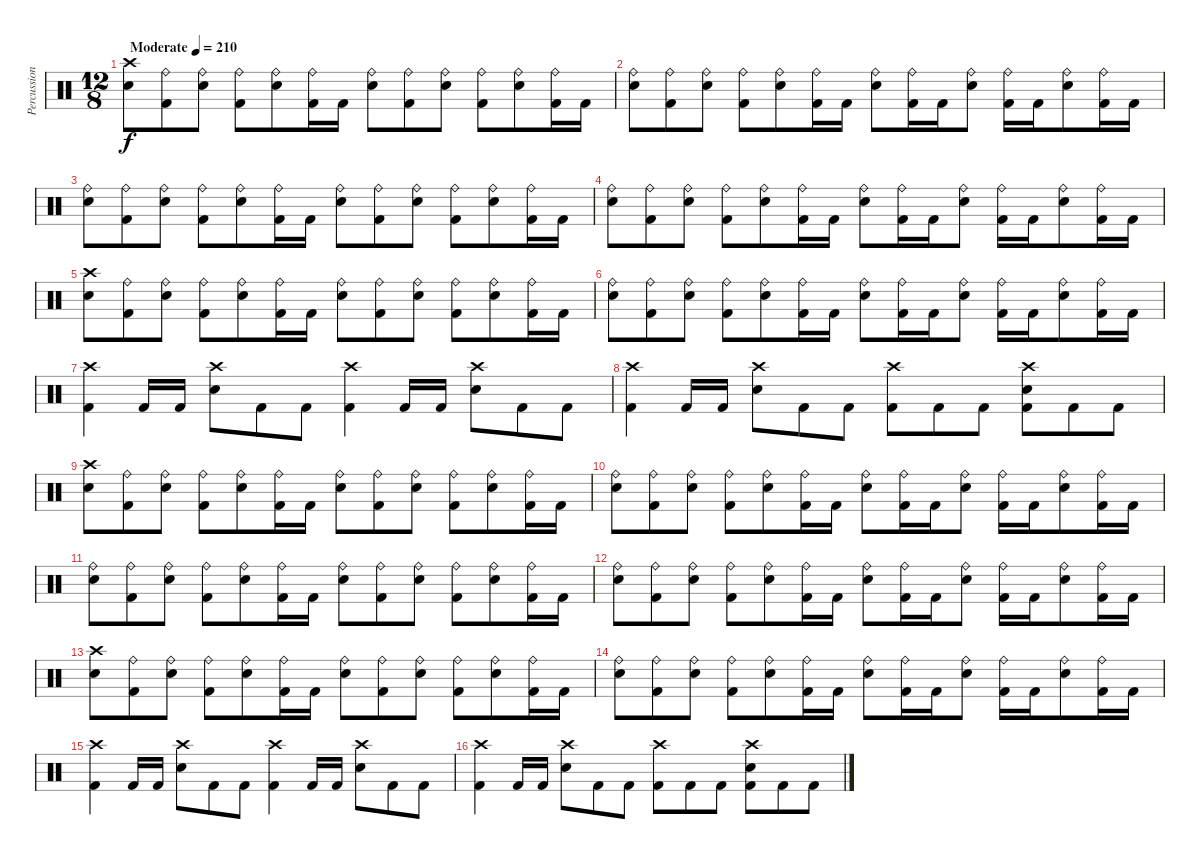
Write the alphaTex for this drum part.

\track ("Percussions" "Percussion") {instrument percussion}
\staff {score}
\articulation defaults
\ts (12 8)
\tempo (210 "Moderate")
\clef neutral
\ks c
("Crash high (hit)" "Snare (hit) 2").8{dy f} ("Ride (bell)" "Kick (hit) 2").8 ("Ride (bell)" "Snare (hit) 2").8 ("Ride (bell)" "Kick (hit) 2").8 ("Ride (bell)" "Snare (hit) 2").8 ("Ride (bell)" "Kick (hit) 2").16 "Kick (hit) 2".16 ("Ride (bell)" "Snare (hit) 2").8 ("Ride (bell)" "Kick (hit) 2").8 ("Ride (bell)" "Snare (hit) 2").8 ("Ride (bell)" "Kick (hit) 2").8 ("Ride (bell)" "Snare (hit) 2").8 ("Ride (bell)" "Kick (hit) 2").16 "Kick (hit) 2".16 |
("Ride (bell)" "Snare (hit) 2").8 ("Ride (bell)" "Kick (hit) 2").8 ("Ride (bell)" "Snare (hit) 2").8 ("Ride (bell)" "Kick (hit) 2").8 ("Ride (bell)" "Snare (hit) 2").8 ("Ride (bell)" "Kick (hit) 2").16 "Kick (hit) 2".16 ("Ride (bell)" "Snare (hit) 2").8 ("Ride (bell)" "Kick (hit) 2").16 "Kick (hit) 2".16 ("Ride (bell)" "Snare (hit) 2").8 ("Ride (bell)" "Kick (hit) 2").16 "Kick (hit) 2".16 ("Ride (bell)" "Snare (hit) 2").8 ("Ride (bell)" "Kick (hit) 2").16 "Kick (hit) 2".16 |
("Ride (bell)" "Snare (hit) 2").8 ("Ride (bell)" "Kick (hit) 2").8 ("Ride (bell)" "Snare (hit) 2").8 ("Ride (bell)" "Kick (hit) 2").8 ("Ride (bell)" "Snare (hit) 2").8 ("Ride (bell)" "Kick (hit) 2").16 "Kick (hit) 2".16 ("Ride (bell)" "Snare (hit) 2").8 ("Ride (bell)" "Kick (hit) 2").8 ("Ride (bell)" "Snare (hit) 2").8 ("Ride (bell)" "Kick (hit) 2").8 ("Ride (bell)" "Snare (hit) 2").8 ("Ride (bell)" "Kick (hit) 2").16 "Kick (hit) 2".16 |
("Ride (bell)" "Snare (hit) 2").8 ("Ride (bell)" "Kick (hit) 2").8 ("Ride (bell)" "Snare (hit) 2").8 ("Ride (bell)" "Kick (hit) 2").8 ("Ride (bell)" "Snare (hit) 2").8 ("Ride (bell)" "Kick (hit) 2").16 "Kick (hit) 2".16 ("Ride (bell)" "Snare (hit) 2").8 ("Ride (bell)" "Kick (hit) 2").16 "Kick (hit) 2".16 ("Ride (bell)" "Snare (hit) 2").8 ("Ride (bell)" "Kick (hit) 2").16 "Kick (hit) 2".16 ("Ride (bell)" "Snare (hit) 2").8 ("Ride (bell)" "Kick (hit) 2").16 "Kick (hit) 2".16 |
("Crash high (hit)" "Snare (hit) 2").8 ("Ride (bell)" "Kick (hit) 2").8 ("Ride (bell)" "Snare (hit) 2").8 ("Ride (bell)" "Kick (hit) 2").8 ("Ride (bell)" "Snare (hit) 2").8 ("Ride (bell)" "Kick (hit) 2").16 "Kick (hit) 2".16 ("Ride (bell)" "Snare (hit) 2").8 ("Ride (bell)" "Kick (hit) 2").8 ("Ride (bell)" "Snare (hit) 2").8 ("Ride (bell)" "Kick (hit) 2").8 ("Ride (bell)" "Snare (hit) 2").8 ("Ride (bell)" "Kick (hit) 2").16 "Kick (hit) 2".16 |
("Ride (bell)" "Snare (hit) 2").8 ("Ride (bell)" "Kick (hit) 2").8 ("Ride (bell)" "Snare (hit) 2").8 ("Ride (bell)" "Kick (hit) 2").8 ("Ride (bell)" "Snare (hit) 2").8 ("Ride (bell)" "Kick (hit) 2").16 "Kick (hit) 2".16 ("Ride (bell)" "Snare (hit) 2").8 ("Ride (bell)" "Kick (hit) 2").16 "Kick (hit) 2".16 ("Ride (bell)" "Snare (hit) 2").8 ("Ride (bell)" "Kick (hit) 2").16 "Kick (hit) 2".16 ("Ride (bell)" "Snare (hit) 2").8 ("Ride (bell)" "Kick (hit) 2").16 "Kick (hit) 2".16 |
("Crash high (hit)" "Kick (hit) 2").4 "Kick (hit) 2".16 "Kick (hit) 2".16 ("Crash high (hit)" "Snare (hit) 2").8 "Kick (hit) 2".8 "Kick (hit) 2".8 ("Crash high (hit)" "Kick (hit) 2").4 "Kick (hit) 2".16 "Kick (hit) 2".16 ("Crash high (hit)" "Snare (hit) 2").8 "Kick (hit) 2".8 "Kick (hit) 2".8 |
("Crash high (hit)" "Kick (hit) 2").4 "Kick (hit) 2".16 "Kick (hit) 2".16 ("Crash high (hit)" "Snare (hit) 2").8 "Kick (hit) 2".8 "Kick (hit) 2".8 ("Crash high (hit)" "Kick (hit) 2").8 "Kick (hit) 2".8 "Kick (hit) 2".8 ("Crash high (hit)" "Snare (hit) 2" "Kick (hit) 2").8 "Kick (hit) 2".8 "Kick (hit) 2".8 |
("Crash high (hit)" "Snare (hit) 2").8 ("Ride (bell)" "Kick (hit) 2").8 ("Ride (bell)" "Snare (hit) 2").8 ("Ride (bell)" "Kick (hit) 2").8 ("Ride (bell)" "Snare (hit) 2").8 ("Ride (bell)" "Kick (hit) 2").16 "Kick (hit) 2".16 ("Ride (bell)" "Snare (hit) 2").8 ("Ride (bell)" "Kick (hit) 2").8 ("Ride (bell)" "Snare (hit) 2").8 ("Ride (bell)" "Kick (hit) 2").8 ("Ride (bell)" "Snare (hit) 2").8 ("Ride (bell)" "Kick (hit) 2").16 "Kick (hit) 2".16 |
("Ride (bell)" "Snare (hit) 2").8 ("Ride (bell)" "Kick (hit) 2").8 ("Ride (bell)" "Snare (hit) 2").8 ("Ride (bell)" "Kick (hit) 2").8 ("Ride (bell)" "Snare (hit) 2").8 ("Ride (bell)" "Kick (hit) 2").16 "Kick (hit) 2".16 ("Ride (bell)" "Snare (hit) 2").8 ("Ride (bell)" "Kick (hit) 2").16 "Kick (hit) 2".16 ("Ride (bell)" "Snare (hit) 2").8 ("Ride (bell)" "Kick (hit) 2").16 "Kick (hit) 2".16 ("Ride (bell)" "Snare (hit) 2").8 ("Ride (bell)" "Kick (hit) 2").16 "Kick (hit) 2".16 |
("Ride (bell)" "Snare (hit) 2").8 ("Ride (bell)" "Kick (hit) 2").8 ("Ride (bell)" "Snare (hit) 2").8 ("Ride (bell)" "Kick (hit) 2").8 ("Ride (bell)" "Snare (hit) 2").8 ("Ride (bell)" "Kick (hit) 2").16 "Kick (hit) 2".16 ("Ride (bell)" "Snare (hit) 2").8 ("Ride (bell)" "Kick (hit) 2").8 ("Ride (bell)" "Snare (hit) 2").8 ("Ride (bell)" "Kick (hit) 2").8 ("Ride (bell)" "Snare (hit) 2").8 ("Ride (bell)" "Kick (hit) 2").16 "Kick (hit) 2".16 |
("Ride (bell)" "Snare (hit) 2").8 ("Ride (bell)" "Kick (hit) 2").8 ("Ride (bell)" "Snare (hit) 2").8 ("Ride (bell)" "Kick (hit) 2").8 ("Ride (bell)" "Snare (hit) 2").8 ("Ride (bell)" "Kick (hit) 2").16 "Kick (hit) 2".16 ("Ride (bell)" "Snare (hit) 2").8 ("Ride (bell)" "Kick (hit) 2").16 "Kick (hit) 2".16 ("Ride (bell)" "Snare (hit) 2").8 ("Ride (bell)" "Kick (hit) 2").16 "Kick (hit) 2".16 ("Ride (bell)" "Snare (hit) 2").8 ("Ride (bell)" "Kick (hit) 2").16 "Kick (hit) 2".16 |
("Crash high (hit)" "Snare (hit) 2").8 ("Ride (bell)" "Kick (hit) 2").8 ("Ride (bell)" "Snare (hit) 2").8 ("Ride (bell)" "Kick (hit) 2").8 ("Ride (bell)" "Snare (hit) 2").8 ("Ride (bell)" "Kick (hit) 2").16 "Kick (hit) 2".16 ("Ride (bell)" "Snare (hit) 2").8 ("Ride (bell)" "Kick (hit) 2").8 ("Ride (bell)" "Snare (hit) 2").8 ("Ride (bell)" "Kick (hit) 2").8 ("Ride (bell)" "Snare (hit) 2").8 ("Ride (bell)" "Kick (hit) 2").16 "Kick (hit) 2".16 |
("Ride (bell)" "Snare (hit) 2").8 ("Ride (bell)" "Kick (hit) 2").8 ("Ride (bell)" "Snare (hit) 2").8 ("Ride (bell)" "Kick (hit) 2").8 ("Ride (bell)" "Snare (hit) 2").8 ("Ride (bell)" "Kick (hit) 2").16 "Kick (hit) 2".16 ("Ride (bell)" "Snare (hit) 2").8 ("Ride (bell)" "Kick (hit) 2").16 "Kick (hit) 2".16 ("Ride (bell)" "Snare (hit) 2").8 ("Ride (bell)" "Kick (hit) 2").16 "Kick (hit) 2".16 ("Ride (bell)" "Snare (hit) 2").8 ("Ride (bell)" "Kick (hit) 2").16 "Kick (hit) 2".16 |
("Crash high (hit)" "Kick (hit) 2").4 "Kick (hit) 2".16 "Kick (hit) 2".16 ("Crash high (hit)" "Snare (hit) 2").8 "Kick (hit) 2".8 "Kick (hit) 2".8 ("Crash high (hit)" "Kick (hit) 2").4 "Kick (hit) 2".16 "Kick (hit) 2".16 ("Crash high (hit)" "Snare (hit) 2").8 "Kick (hit) 2".8 "Kick (hit) 2".8 |
("Crash high (hit)" "Kick (hit) 2").4 "Kick (hit) 2".16 "Kick (hit) 2".16 ("Crash high (hit)" "Snare (hit) 2").8 "Kick (hit) 2".8 "Kick (hit) 2".8 ("Crash high (hit)" "Kick (hit) 2").8 "Kick (hit) 2".8 "Kick (hit) 2".8 ("Crash high (hit)" "Snare (hit) 2" "Kick (hit) 2").8 "Kick (hit) 2".8 "Kick (hit) 2".8
